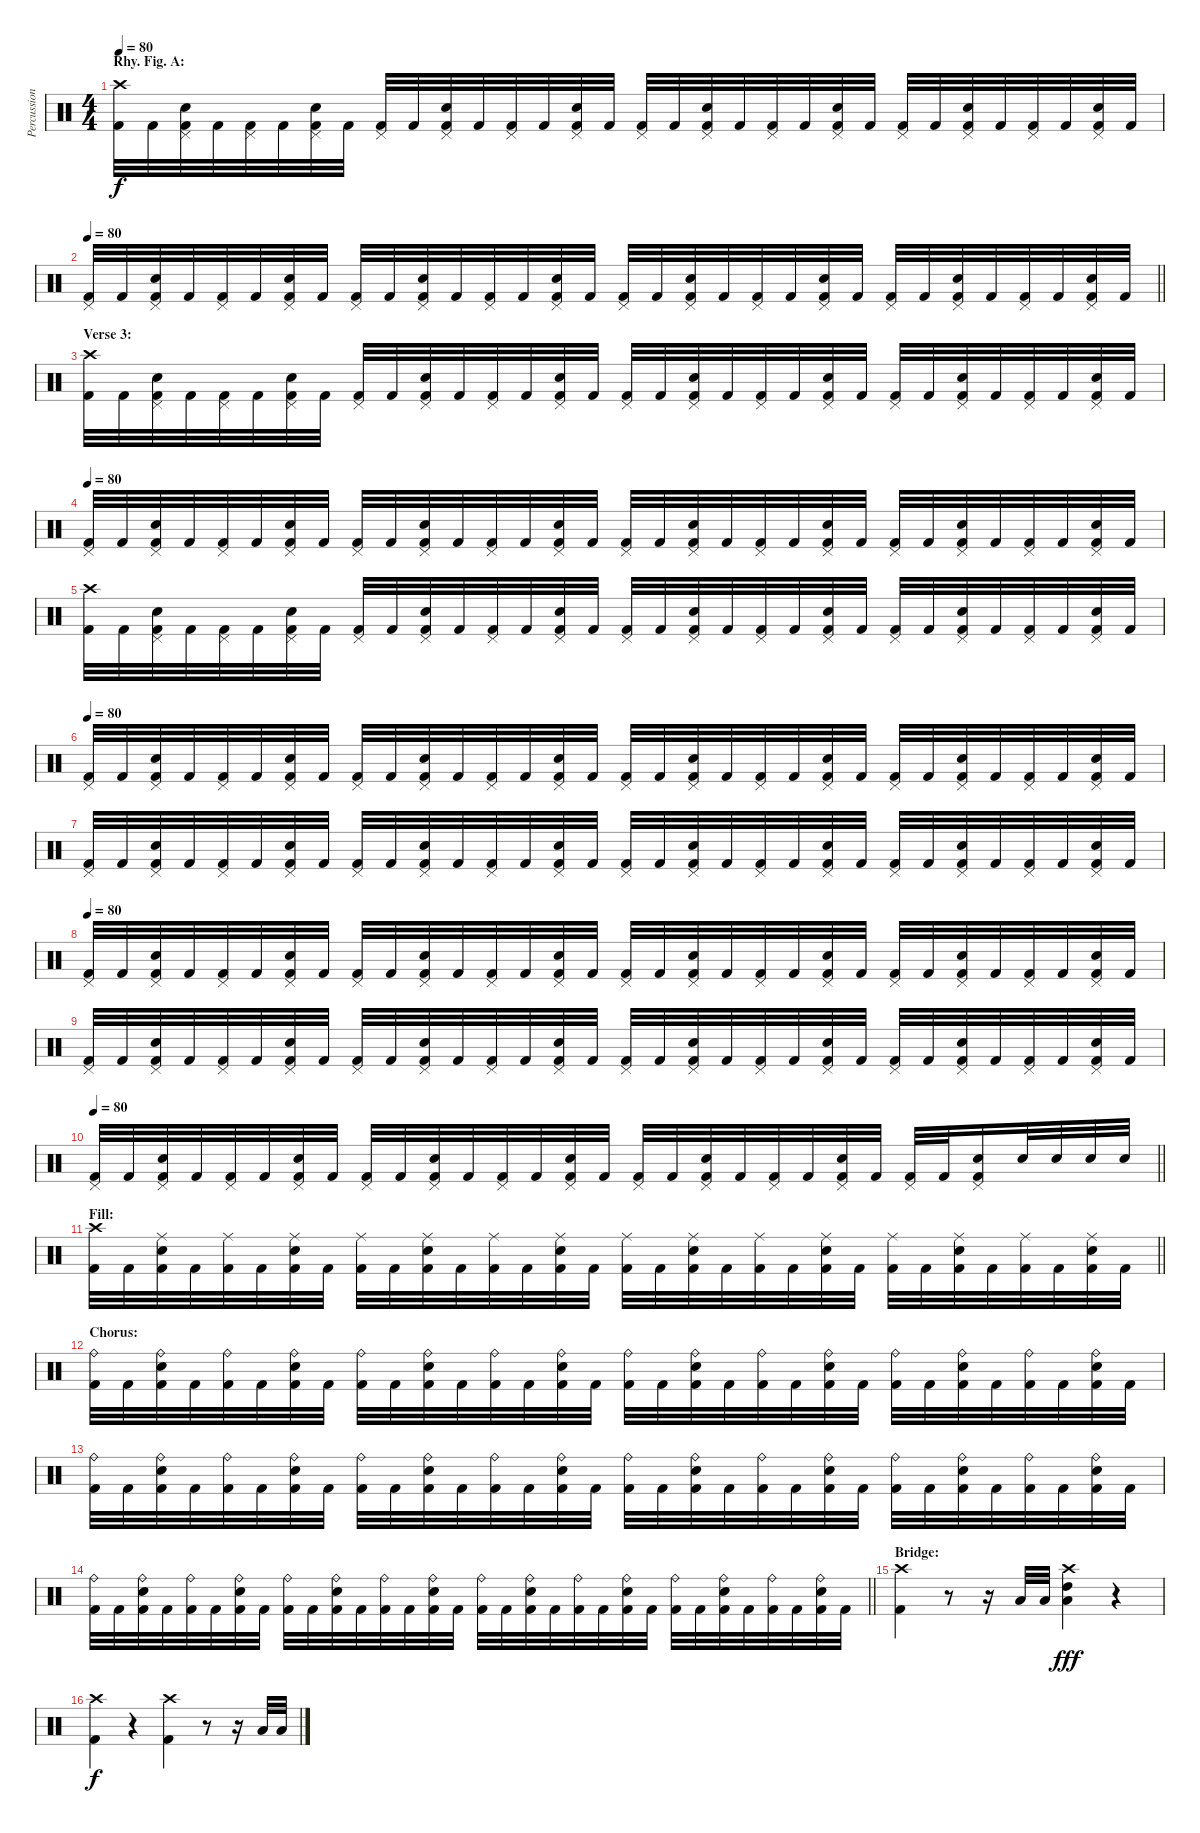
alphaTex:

\track ("Percussion" "Percussion") {instrument percussion}
\staff {score}
\articulation defaults
\ts (4 4)
\section ("" "Rhy. Fig. A:")
\tempo 80
\clef neutral
\ks c
("Crash high (hit)" "Kick (hit) 2").32{dy f} "Kick (hit) 2".32 ("Pedal Hi-Hat (hit)" "Electric Snare (hit)" "Kick (hit) 2").32 "Kick (hit) 2".32 ("Pedal Hi-Hat (hit)" "Kick (hit) 2").32 "Kick (hit) 2".32 ("Pedal Hi-Hat (hit)" "Electric Snare (hit)" "Kick (hit) 2").32 "Kick (hit) 2".32 ("Pedal Hi-Hat (hit)" "Kick (hit) 2").32 "Kick (hit) 2".32 ("Pedal Hi-Hat (hit)" "Electric Snare (hit)" "Kick (hit) 2").32 "Kick (hit) 2".32 ("Pedal Hi-Hat (hit)" "Kick (hit) 2").32 "Kick (hit) 2".32 ("Pedal Hi-Hat (hit)" "Electric Snare (hit)" "Kick (hit) 2").32 "Kick (hit) 2".32 ("Pedal Hi-Hat (hit)" "Kick (hit) 2").32 "Kick (hit) 2".32 ("Pedal Hi-Hat (hit)" "Electric Snare (hit)" "Kick (hit) 2").32 "Kick (hit) 2".32 ("Pedal Hi-Hat (hit)" "Kick (hit) 2").32 "Kick (hit) 2".32 ("Pedal Hi-Hat (hit)" "Electric Snare (hit)" "Kick (hit) 2").32 "Kick (hit) 2".32 ("Pedal Hi-Hat (hit)" "Kick (hit) 2").32 "Kick (hit) 2".32 ("Pedal Hi-Hat (hit)" "Electric Snare (hit)" "Kick (hit) 2").32 "Kick (hit) 2".32 ("Pedal Hi-Hat (hit)" "Kick (hit) 2").32 "Kick (hit) 2".32 ("Pedal Hi-Hat (hit)" "Electric Snare (hit)" "Kick (hit) 2").32 "Kick (hit) 2".32 |
\tempo 80
\barLineRight lightlight
("Pedal Hi-Hat (hit)" "Kick (hit) 2").32 "Kick (hit) 2".32 ("Pedal Hi-Hat (hit)" "Electric Snare (hit)" "Kick (hit) 2").32 "Kick (hit) 2".32 ("Pedal Hi-Hat (hit)" "Kick (hit) 2").32 "Kick (hit) 2".32 ("Pedal Hi-Hat (hit)" "Electric Snare (hit)" "Kick (hit) 2").32 "Kick (hit) 2".32 ("Pedal Hi-Hat (hit)" "Kick (hit) 2").32 "Kick (hit) 2".32 ("Pedal Hi-Hat (hit)" "Electric Snare (hit)" "Kick (hit) 2").32 "Kick (hit) 2".32 ("Pedal Hi-Hat (hit)" "Kick (hit) 2").32 "Kick (hit) 2".32 ("Pedal Hi-Hat (hit)" "Electric Snare (hit)" "Kick (hit) 2").32 "Kick (hit) 2".32 ("Pedal Hi-Hat (hit)" "Kick (hit) 2").32 "Kick (hit) 2".32 ("Pedal Hi-Hat (hit)" "Electric Snare (hit)" "Kick (hit) 2").32 "Kick (hit) 2".32 ("Pedal Hi-Hat (hit)" "Kick (hit) 2").32 "Kick (hit) 2".32 ("Pedal Hi-Hat (hit)" "Electric Snare (hit)" "Kick (hit) 2").32 "Kick (hit) 2".32 ("Pedal Hi-Hat (hit)" "Kick (hit) 2").32 "Kick (hit) 2".32 ("Pedal Hi-Hat (hit)" "Electric Snare (hit)" "Kick (hit) 2").32 "Kick (hit) 2".32 ("Pedal Hi-Hat (hit)" "Kick (hit) 2").32 "Kick (hit) 2".32 ("Pedal Hi-Hat (hit)" "Electric Snare (hit)" "Kick (hit) 2").32 "Kick (hit) 2".32 |
\section ("" "Verse 3:")
("Crash high (hit)" "Kick (hit) 2").32 "Kick (hit) 2".32 ("Pedal Hi-Hat (hit)" "Electric Snare (hit)" "Kick (hit) 2").32 "Kick (hit) 2".32 ("Pedal Hi-Hat (hit)" "Kick (hit) 2").32 "Kick (hit) 2".32 ("Pedal Hi-Hat (hit)" "Electric Snare (hit)" "Kick (hit) 2").32 "Kick (hit) 2".32 ("Pedal Hi-Hat (hit)" "Kick (hit) 2").32 "Kick (hit) 2".32 ("Pedal Hi-Hat (hit)" "Electric Snare (hit)" "Kick (hit) 2").32 "Kick (hit) 2".32 ("Pedal Hi-Hat (hit)" "Kick (hit) 2").32 "Kick (hit) 2".32 ("Pedal Hi-Hat (hit)" "Electric Snare (hit)" "Kick (hit) 2").32 "Kick (hit) 2".32 ("Pedal Hi-Hat (hit)" "Kick (hit) 2").32 "Kick (hit) 2".32 ("Pedal Hi-Hat (hit)" "Electric Snare (hit)" "Kick (hit) 2").32 "Kick (hit) 2".32 ("Pedal Hi-Hat (hit)" "Kick (hit) 2").32 "Kick (hit) 2".32 ("Pedal Hi-Hat (hit)" "Electric Snare (hit)" "Kick (hit) 2").32 "Kick (hit) 2".32 ("Pedal Hi-Hat (hit)" "Kick (hit) 2").32 "Kick (hit) 2".32 ("Pedal Hi-Hat (hit)" "Electric Snare (hit)" "Kick (hit) 2").32 "Kick (hit) 2".32 ("Pedal Hi-Hat (hit)" "Kick (hit) 2").32 "Kick (hit) 2".32 ("Pedal Hi-Hat (hit)" "Electric Snare (hit)" "Kick (hit) 2").32 "Kick (hit) 2".32 |
\tempo 80
("Pedal Hi-Hat (hit)" "Kick (hit) 2").32 "Kick (hit) 2".32 ("Pedal Hi-Hat (hit)" "Electric Snare (hit)" "Kick (hit) 2").32 "Kick (hit) 2".32 ("Pedal Hi-Hat (hit)" "Kick (hit) 2").32 "Kick (hit) 2".32 ("Pedal Hi-Hat (hit)" "Electric Snare (hit)" "Kick (hit) 2").32 "Kick (hit) 2".32 ("Pedal Hi-Hat (hit)" "Kick (hit) 2").32 "Kick (hit) 2".32 ("Pedal Hi-Hat (hit)" "Electric Snare (hit)" "Kick (hit) 2").32 "Kick (hit) 2".32 ("Pedal Hi-Hat (hit)" "Kick (hit) 2").32 "Kick (hit) 2".32 ("Pedal Hi-Hat (hit)" "Electric Snare (hit)" "Kick (hit) 2").32 "Kick (hit) 2".32 ("Pedal Hi-Hat (hit)" "Kick (hit) 2").32 "Kick (hit) 2".32 ("Pedal Hi-Hat (hit)" "Electric Snare (hit)" "Kick (hit) 2").32 "Kick (hit) 2".32 ("Pedal Hi-Hat (hit)" "Kick (hit) 2").32 "Kick (hit) 2".32 ("Pedal Hi-Hat (hit)" "Electric Snare (hit)" "Kick (hit) 2").32 "Kick (hit) 2".32 ("Pedal Hi-Hat (hit)" "Kick (hit) 2").32 "Kick (hit) 2".32 ("Pedal Hi-Hat (hit)" "Electric Snare (hit)" "Kick (hit) 2").32 "Kick (hit) 2".32 ("Pedal Hi-Hat (hit)" "Kick (hit) 2").32 "Kick (hit) 2".32 ("Pedal Hi-Hat (hit)" "Electric Snare (hit)" "Kick (hit) 2").32 "Kick (hit) 2".32 |
("Crash high (hit)" "Kick (hit) 2").32 "Kick (hit) 2".32 ("Pedal Hi-Hat (hit)" "Electric Snare (hit)" "Kick (hit) 2").32 "Kick (hit) 2".32 ("Pedal Hi-Hat (hit)" "Kick (hit) 2").32 "Kick (hit) 2".32 ("Pedal Hi-Hat (hit)" "Electric Snare (hit)" "Kick (hit) 2").32 "Kick (hit) 2".32 ("Pedal Hi-Hat (hit)" "Kick (hit) 2").32 "Kick (hit) 2".32 ("Pedal Hi-Hat (hit)" "Electric Snare (hit)" "Kick (hit) 2").32 "Kick (hit) 2".32 ("Pedal Hi-Hat (hit)" "Kick (hit) 2").32 "Kick (hit) 2".32 ("Pedal Hi-Hat (hit)" "Electric Snare (hit)" "Kick (hit) 2").32 "Kick (hit) 2".32 ("Pedal Hi-Hat (hit)" "Kick (hit) 2").32 "Kick (hit) 2".32 ("Pedal Hi-Hat (hit)" "Electric Snare (hit)" "Kick (hit) 2").32 "Kick (hit) 2".32 ("Pedal Hi-Hat (hit)" "Kick (hit) 2").32 "Kick (hit) 2".32 ("Pedal Hi-Hat (hit)" "Electric Snare (hit)" "Kick (hit) 2").32 "Kick (hit) 2".32 ("Pedal Hi-Hat (hit)" "Kick (hit) 2").32 "Kick (hit) 2".32 ("Pedal Hi-Hat (hit)" "Electric Snare (hit)" "Kick (hit) 2").32 "Kick (hit) 2".32 ("Pedal Hi-Hat (hit)" "Kick (hit) 2").32 "Kick (hit) 2".32 ("Pedal Hi-Hat (hit)" "Electric Snare (hit)" "Kick (hit) 2").32 "Kick (hit) 2".32 |
\tempo 80
("Pedal Hi-Hat (hit)" "Kick (hit) 2").32 "Kick (hit) 2".32 ("Pedal Hi-Hat (hit)" "Electric Snare (hit)" "Kick (hit) 2").32 "Kick (hit) 2".32 ("Pedal Hi-Hat (hit)" "Kick (hit) 2").32 "Kick (hit) 2".32 ("Pedal Hi-Hat (hit)" "Electric Snare (hit)" "Kick (hit) 2").32 "Kick (hit) 2".32 ("Pedal Hi-Hat (hit)" "Kick (hit) 2").32 "Kick (hit) 2".32 ("Pedal Hi-Hat (hit)" "Electric Snare (hit)" "Kick (hit) 2").32 "Kick (hit) 2".32 ("Pedal Hi-Hat (hit)" "Kick (hit) 2").32 "Kick (hit) 2".32 ("Pedal Hi-Hat (hit)" "Electric Snare (hit)" "Kick (hit) 2").32 "Kick (hit) 2".32 ("Pedal Hi-Hat (hit)" "Kick (hit) 2").32 "Kick (hit) 2".32 ("Pedal Hi-Hat (hit)" "Electric Snare (hit)" "Kick (hit) 2").32 "Kick (hit) 2".32 ("Pedal Hi-Hat (hit)" "Kick (hit) 2").32 "Kick (hit) 2".32 ("Pedal Hi-Hat (hit)" "Electric Snare (hit)" "Kick (hit) 2").32 "Kick (hit) 2".32 ("Pedal Hi-Hat (hit)" "Kick (hit) 2").32 "Kick (hit) 2".32 ("Pedal Hi-Hat (hit)" "Electric Snare (hit)" "Kick (hit) 2").32 "Kick (hit) 2".32 ("Pedal Hi-Hat (hit)" "Kick (hit) 2").32 "Kick (hit) 2".32 ("Pedal Hi-Hat (hit)" "Electric Snare (hit)" "Kick (hit) 2").32 "Kick (hit) 2".32 |
("Pedal Hi-Hat (hit)" "Kick (hit) 2").32 "Kick (hit) 2".32 ("Pedal Hi-Hat (hit)" "Electric Snare (hit)" "Kick (hit) 2").32 "Kick (hit) 2".32 ("Pedal Hi-Hat (hit)" "Kick (hit) 2").32 "Kick (hit) 2".32 ("Pedal Hi-Hat (hit)" "Electric Snare (hit)" "Kick (hit) 2").32 "Kick (hit) 2".32 ("Pedal Hi-Hat (hit)" "Kick (hit) 2").32 "Kick (hit) 2".32 ("Pedal Hi-Hat (hit)" "Electric Snare (hit)" "Kick (hit) 2").32 "Kick (hit) 2".32 ("Pedal Hi-Hat (hit)" "Kick (hit) 2").32 "Kick (hit) 2".32 ("Pedal Hi-Hat (hit)" "Electric Snare (hit)" "Kick (hit) 2").32 "Kick (hit) 2".32 ("Pedal Hi-Hat (hit)" "Kick (hit) 2").32 "Kick (hit) 2".32 ("Pedal Hi-Hat (hit)" "Electric Snare (hit)" "Kick (hit) 2").32 "Kick (hit) 2".32 ("Pedal Hi-Hat (hit)" "Kick (hit) 2").32 "Kick (hit) 2".32 ("Pedal Hi-Hat (hit)" "Electric Snare (hit)" "Kick (hit) 2").32 "Kick (hit) 2".32 ("Pedal Hi-Hat (hit)" "Kick (hit) 2").32 "Kick (hit) 2".32 ("Pedal Hi-Hat (hit)" "Electric Snare (hit)" "Kick (hit) 2").32 "Kick (hit) 2".32 ("Pedal Hi-Hat (hit)" "Kick (hit) 2").32 "Kick (hit) 2".32 ("Pedal Hi-Hat (hit)" "Electric Snare (hit)" "Kick (hit) 2").32 "Kick (hit) 2".32 |
\tempo 80
("Pedal Hi-Hat (hit)" "Kick (hit) 2").32 "Kick (hit) 2".32 ("Pedal Hi-Hat (hit)" "Electric Snare (hit)" "Kick (hit) 2").32 "Kick (hit) 2".32 ("Pedal Hi-Hat (hit)" "Kick (hit) 2").32 "Kick (hit) 2".32 ("Pedal Hi-Hat (hit)" "Electric Snare (hit)" "Kick (hit) 2").32 "Kick (hit) 2".32 ("Pedal Hi-Hat (hit)" "Kick (hit) 2").32 "Kick (hit) 2".32 ("Pedal Hi-Hat (hit)" "Electric Snare (hit)" "Kick (hit) 2").32 "Kick (hit) 2".32 ("Pedal Hi-Hat (hit)" "Kick (hit) 2").32 "Kick (hit) 2".32 ("Pedal Hi-Hat (hit)" "Electric Snare (hit)" "Kick (hit) 2").32 "Kick (hit) 2".32 ("Pedal Hi-Hat (hit)" "Kick (hit) 2").32 "Kick (hit) 2".32 ("Pedal Hi-Hat (hit)" "Electric Snare (hit)" "Kick (hit) 2").32 "Kick (hit) 2".32 ("Pedal Hi-Hat (hit)" "Kick (hit) 2").32 "Kick (hit) 2".32 ("Pedal Hi-Hat (hit)" "Electric Snare (hit)" "Kick (hit) 2").32 "Kick (hit) 2".32 ("Pedal Hi-Hat (hit)" "Kick (hit) 2").32 "Kick (hit) 2".32 ("Pedal Hi-Hat (hit)" "Electric Snare (hit)" "Kick (hit) 2").32 "Kick (hit) 2".32 ("Pedal Hi-Hat (hit)" "Kick (hit) 2").32 "Kick (hit) 2".32 ("Pedal Hi-Hat (hit)" "Electric Snare (hit)" "Kick (hit) 2").32 "Kick (hit) 2".32 |
("Pedal Hi-Hat (hit)" "Kick (hit) 2").32 "Kick (hit) 2".32 ("Pedal Hi-Hat (hit)" "Electric Snare (hit)" "Kick (hit) 2").32 "Kick (hit) 2".32 ("Pedal Hi-Hat (hit)" "Kick (hit) 2").32 "Kick (hit) 2".32 ("Pedal Hi-Hat (hit)" "Electric Snare (hit)" "Kick (hit) 2").32 "Kick (hit) 2".32 ("Pedal Hi-Hat (hit)" "Kick (hit) 2").32 "Kick (hit) 2".32 ("Pedal Hi-Hat (hit)" "Electric Snare (hit)" "Kick (hit) 2").32 "Kick (hit) 2".32 ("Pedal Hi-Hat (hit)" "Kick (hit) 2").32 "Kick (hit) 2".32 ("Pedal Hi-Hat (hit)" "Electric Snare (hit)" "Kick (hit) 2").32 "Kick (hit) 2".32 ("Pedal Hi-Hat (hit)" "Kick (hit) 2").32 "Kick (hit) 2".32 ("Pedal Hi-Hat (hit)" "Electric Snare (hit)" "Kick (hit) 2").32 "Kick (hit) 2".32 ("Pedal Hi-Hat (hit)" "Kick (hit) 2").32 "Kick (hit) 2".32 ("Pedal Hi-Hat (hit)" "Electric Snare (hit)" "Kick (hit) 2").32 "Kick (hit) 2".32 ("Pedal Hi-Hat (hit)" "Kick (hit) 2").32 "Kick (hit) 2".32 ("Pedal Hi-Hat (hit)" "Electric Snare (hit)" "Kick (hit) 2").32 "Kick (hit) 2".32 ("Pedal Hi-Hat (hit)" "Kick (hit) 2").32 "Kick (hit) 2".32 ("Pedal Hi-Hat (hit)" "Electric Snare (hit)" "Kick (hit) 2").32 "Kick (hit) 2".32 |
\tempo 80
\barLineRight lightlight
("Pedal Hi-Hat (hit)" "Kick (hit) 2").32 "Kick (hit) 2".32 ("Pedal Hi-Hat (hit)" "Electric Snare (hit)" "Kick (hit) 2").32 "Kick (hit) 2".32 ("Pedal Hi-Hat (hit)" "Kick (hit) 2").32 "Kick (hit) 2".32 ("Pedal Hi-Hat (hit)" "Electric Snare (hit)" "Kick (hit) 2").32 "Kick (hit) 2".32 ("Pedal Hi-Hat (hit)" "Kick (hit) 2").32 "Kick (hit) 2".32 ("Pedal Hi-Hat (hit)" "Electric Snare (hit)" "Kick (hit) 2").32 "Kick (hit) 2".32 ("Pedal Hi-Hat (hit)" "Kick (hit) 2").32 "Kick (hit) 2".32 ("Pedal Hi-Hat (hit)" "Electric Snare (hit)" "Kick (hit) 2").32 "Kick (hit) 2".32 ("Pedal Hi-Hat (hit)" "Kick (hit) 2").32 "Kick (hit) 2".32 ("Pedal Hi-Hat (hit)" "Electric Snare (hit)" "Kick (hit) 2").32 "Kick (hit) 2".32 ("Pedal Hi-Hat (hit)" "Kick (hit) 2").32 "Kick (hit) 2".32 ("Pedal Hi-Hat (hit)" "Electric Snare (hit)" "Kick (hit) 2").32 "Kick (hit) 2".32 ("Pedal Hi-Hat (hit)" "Kick (hit) 2").32 "Kick (hit) 2".32 ("Pedal Hi-Hat (hit)" "Electric Snare (hit)" "Kick (hit) 2").16 "Electric Snare (hit)".32 "Electric Snare (hit)".32 "Electric Snare (hit)".32 "Electric Snare (hit)".32 |
\section ("" "Fill:")
\barLineRight lightlight
("Crash high (hit)" "Kick (hit) 2").32 "Kick (hit) 2".32 ("Ride (middle)" "Electric Snare (hit)" "Kick (hit) 2").32 "Kick (hit) 2".32 ("Ride (middle)" "Kick (hit) 2").32 "Kick (hit) 2".32 ("Ride (middle)" "Electric Snare (hit)" "Kick (hit) 2").32 "Kick (hit) 2".32 ("Ride (middle)" "Kick (hit) 2").32 "Kick (hit) 2".32 ("Ride (middle)" "Electric Snare (hit)" "Kick (hit) 2").32 "Kick (hit) 2".32 ("Ride (middle)" "Kick (hit) 2").32 "Kick (hit) 2".32 ("Ride (middle)" "Electric Snare (hit)" "Kick (hit) 2").32 "Kick (hit) 2".32 ("Ride (middle)" "Kick (hit) 2").32 "Kick (hit) 2".32 ("Ride (middle)" "Electric Snare (hit)" "Kick (hit) 2").32 "Kick (hit) 2".32 ("Ride (middle)" "Kick (hit) 2").32 "Kick (hit) 2".32 ("Ride (middle)" "Electric Snare (hit)" "Kick (hit) 2").32 "Kick (hit) 2".32 ("Ride (middle)" "Kick (hit) 2").32 "Kick (hit) 2".32 ("Ride (middle)" "Electric Snare (hit)" "Kick (hit) 2").32 "Kick (hit) 2".32 ("Ride (middle)" "Kick (hit) 2").32 "Kick (hit) 2".32 ("Ride (middle)" "Electric Snare (hit)" "Kick (hit) 2").32 "Kick (hit) 2".32 |
\section ("" "Chorus:")
("Ride (bell)" "Kick (hit) 2").32 "Kick (hit) 2".32 ("Ride (bell)" "Electric Snare (hit)" "Kick (hit) 2").32 "Kick (hit) 2".32 ("Ride (bell)" "Kick (hit) 2").32 "Kick (hit) 2".32 ("Ride (bell)" "Electric Snare (hit)" "Kick (hit) 2").32 "Kick (hit) 2".32 ("Ride (bell)" "Kick (hit) 2").32 "Kick (hit) 2".32 ("Ride (bell)" "Electric Snare (hit)" "Kick (hit) 2").32 "Kick (hit) 2".32 ("Ride (bell)" "Kick (hit) 2").32 "Kick (hit) 2".32 ("Ride (bell)" "Electric Snare (hit)" "Kick (hit) 2").32 "Kick (hit) 2".32 ("Ride (bell)" "Kick (hit) 2").32 "Kick (hit) 2".32 ("Ride (bell)" "Electric Snare (hit)" "Kick (hit) 2").32 "Kick (hit) 2".32 ("Ride (bell)" "Kick (hit) 2").32 "Kick (hit) 2".32 ("Ride (bell)" "Electric Snare (hit)" "Kick (hit) 2").32 "Kick (hit) 2".32 ("Ride (bell)" "Kick (hit) 2").32 "Kick (hit) 2".32 ("Ride (bell)" "Electric Snare (hit)" "Kick (hit) 2").32 "Kick (hit) 2".32 ("Ride (bell)" "Kick (hit) 2").32 "Kick (hit) 2".32 ("Ride (bell)" "Electric Snare (hit)" "Kick (hit) 2").32 "Kick (hit) 2".32 |
("Ride (bell)" "Kick (hit) 2").32 "Kick (hit) 2".32 ("Ride (bell)" "Electric Snare (hit)" "Kick (hit) 2").32 "Kick (hit) 2".32 ("Ride (bell)" "Kick (hit) 2").32 "Kick (hit) 2".32 ("Ride (bell)" "Electric Snare (hit)" "Kick (hit) 2").32 "Kick (hit) 2".32 ("Ride (bell)" "Kick (hit) 2").32 "Kick (hit) 2".32 ("Ride (bell)" "Electric Snare (hit)" "Kick (hit) 2").32 "Kick (hit) 2".32 ("Ride (bell)" "Kick (hit) 2").32 "Kick (hit) 2".32 ("Ride (bell)" "Electric Snare (hit)" "Kick (hit) 2").32 "Kick (hit) 2".32 ("Ride (bell)" "Kick (hit) 2").32 "Kick (hit) 2".32 ("Ride (bell)" "Electric Snare (hit)" "Kick (hit) 2").32 "Kick (hit) 2".32 ("Ride (bell)" "Kick (hit) 2").32 "Kick (hit) 2".32 ("Ride (bell)" "Electric Snare (hit)" "Kick (hit) 2").32 "Kick (hit) 2".32 ("Ride (bell)" "Kick (hit) 2").32 "Kick (hit) 2".32 ("Ride (bell)" "Electric Snare (hit)" "Kick (hit) 2").32 "Kick (hit) 2".32 ("Ride (bell)" "Kick (hit) 2").32 "Kick (hit) 2".32 ("Ride (bell)" "Electric Snare (hit)" "Kick (hit) 2").32 "Kick (hit) 2".32 |
\barLineRight lightlight
("Ride (bell)" "Kick (hit) 2").32 "Kick (hit) 2".32 ("Ride (bell)" "Electric Snare (hit)" "Kick (hit) 2").32 "Kick (hit) 2".32 ("Ride (bell)" "Kick (hit) 2").32 "Kick (hit) 2".32 ("Ride (bell)" "Electric Snare (hit)" "Kick (hit) 2").32 "Kick (hit) 2".32 ("Ride (bell)" "Kick (hit) 2").32 "Kick (hit) 2".32 ("Ride (bell)" "Electric Snare (hit)" "Kick (hit) 2").32 "Kick (hit) 2".32 ("Ride (bell)" "Kick (hit) 2").32 "Kick (hit) 2".32 ("Ride (bell)" "Electric Snare (hit)" "Kick (hit) 2").32 "Kick (hit) 2".32 ("Ride (bell)" "Kick (hit) 2").32 "Kick (hit) 2".32 ("Ride (bell)" "Electric Snare (hit)" "Kick (hit) 2").32 "Kick (hit) 2".32 ("Ride (bell)" "Kick (hit) 2").32 "Kick (hit) 2".32 ("Ride (bell)" "Electric Snare (hit)" "Kick (hit) 2").32 "Kick (hit) 2".32 ("Ride (bell)" "Kick (hit) 2").32 "Kick (hit) 2".32 ("Ride (bell)" "Electric Snare (hit)" "Kick (hit) 2").32 "Kick (hit) 2".32 ("Ride (bell)" "Kick (hit) 2").32 "Kick (hit) 2".32 ("Ride (bell)" "Electric Snare (hit)" "Kick (hit) 2").32 "Kick (hit) 2".32 |
\section ("" "Bridge:")
("Crash high (hit)" "Kick (hit) 2").4 r.8 r.16 "Low Tom (hit)".32 "Low Tom (hit)".32 ("Crash high (hit)" "High Tom (hit)" "Low Tom (hit)").4{dy fff} r.4 |
("Crash high (hit)" "Kick (hit) 2").4{dy f} r.4 ("Crash high (hit)" "Kick (hit) 2").4 r.8 r.16 "Low Tom (hit)".32 "Low Tom (hit)".32
